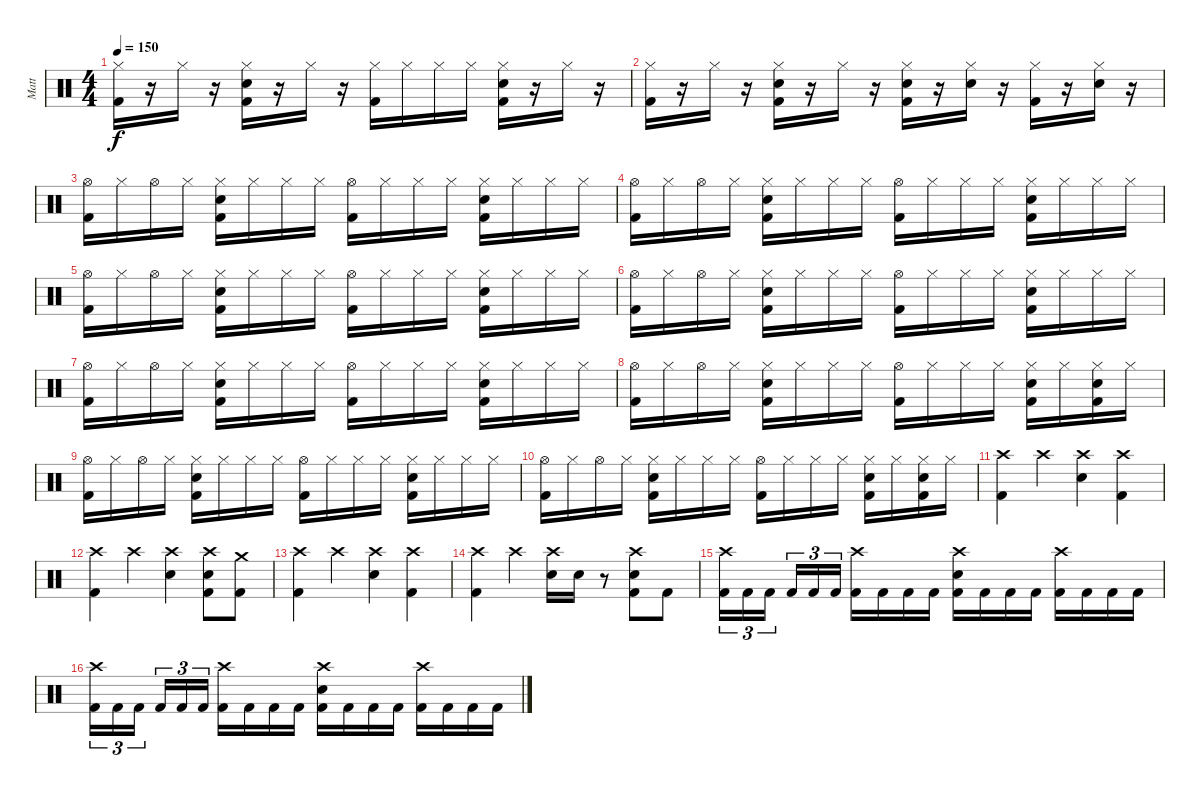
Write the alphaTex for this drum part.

\track ("Matt" "Matt") {instrument percussion}
\staff {score}
\articulation defaults
\ts (4 4)
\tempo 150
\clef neutral
\ks c
("Hi-Hat (closed)" "Kick (hit) 2").16{dy f} r.16 "Hi-Hat (closed)".16 r.16 ("Hi-Hat (closed)" "Snare (hit) 2" "Kick (hit) 2").16 r.16 "Hi-Hat (closed)".16 r.16 ("Hi-Hat (closed)" "Kick (hit) 2").16 "Hi-Hat (closed)".16 "Hi-Hat (closed)".16 "Hi-Hat (closed)".16 ("Hi-Hat (closed)" "Snare (hit) 2" "Kick (hit) 2").16 r.16 "Hi-Hat (closed)".16 r.16 |
("Hi-Hat (closed)" "Kick (hit) 2").16 r.16 "Hi-Hat (closed)".16 r.16 ("Hi-Hat (closed)" "Snare (hit) 2" "Kick (hit) 2").16 r.16 "Hi-Hat (closed)".16 r.16 ("Hi-Hat (closed)" "Snare (hit) 2" "Kick (hit) 2").16 r.16 ("Hi-Hat (closed)" "Snare (hit) 2").16 r.16 ("Hi-Hat (closed)" "Kick (hit) 2").16 r.16 ("Hi-Hat (closed)" "Snare (hit) 2").16 r.16 |
("Hi-Hat (open)" "Kick (hit) 2").16{volume 16} "Hi-Hat (closed)".16 "Hi-Hat (open)".16 "Hi-Hat (closed)".16 ("Hi-Hat (closed)" "Snare (hit) 2" "Kick (hit) 2").16 "Hi-Hat (closed)".16 "Hi-Hat (closed)".16 "Hi-Hat (closed)".16 ("Hi-Hat (open)" "Kick (hit) 2").16 "Hi-Hat (closed)".16 "Hi-Hat (closed)".16 "Hi-Hat (closed)".16 ("Hi-Hat (closed)" "Snare (hit) 2" "Kick (hit) 2").16 "Hi-Hat (closed)".16 "Hi-Hat (closed)".16 "Hi-Hat (closed)".16 |
("Hi-Hat (open)" "Kick (hit) 2").16{volume 16} "Hi-Hat (closed)".16 "Hi-Hat (open)".16 "Hi-Hat (closed)".16 ("Hi-Hat (closed)" "Snare (hit) 2" "Kick (hit) 2").16 "Hi-Hat (closed)".16 "Hi-Hat (closed)".16 "Hi-Hat (closed)".16 ("Hi-Hat (open)" "Kick (hit) 2").16 "Hi-Hat (closed)".16 "Hi-Hat (closed)".16 "Hi-Hat (closed)".16 ("Hi-Hat (closed)" "Snare (hit) 2" "Kick (hit) 2").16 "Hi-Hat (closed)".16 "Hi-Hat (closed)".16 "Hi-Hat (closed)".16 |
("Hi-Hat (open)" "Kick (hit) 2").16{volume 16} "Hi-Hat (closed)".16 "Hi-Hat (open)".16 "Hi-Hat (closed)".16 ("Hi-Hat (closed)" "Snare (hit) 2" "Kick (hit) 2").16 "Hi-Hat (closed)".16 "Hi-Hat (closed)".16 "Hi-Hat (closed)".16 ("Hi-Hat (open)" "Kick (hit) 2").16 "Hi-Hat (closed)".16 "Hi-Hat (closed)".16 "Hi-Hat (closed)".16 ("Hi-Hat (closed)" "Snare (hit) 2" "Kick (hit) 2").16 "Hi-Hat (closed)".16 "Hi-Hat (closed)".16 "Hi-Hat (closed)".16 |
("Hi-Hat (open)" "Kick (hit) 2").16{volume 16} "Hi-Hat (closed)".16 "Hi-Hat (open)".16 "Hi-Hat (closed)".16 ("Hi-Hat (closed)" "Snare (hit) 2" "Kick (hit) 2").16 "Hi-Hat (closed)".16 "Hi-Hat (closed)".16 "Hi-Hat (closed)".16 ("Hi-Hat (open)" "Kick (hit) 2").16 "Hi-Hat (closed)".16 "Hi-Hat (closed)".16 "Hi-Hat (closed)".16 ("Hi-Hat (closed)" "Snare (hit) 2" "Kick (hit) 2").16 "Hi-Hat (closed)".16 "Hi-Hat (closed)".16 "Hi-Hat (closed)".16 |
("Hi-Hat (open)" "Kick (hit) 2").16{volume 16} "Hi-Hat (closed)".16 "Hi-Hat (open)".16 "Hi-Hat (closed)".16 ("Hi-Hat (closed)" "Snare (hit) 2" "Kick (hit) 2").16 "Hi-Hat (closed)".16 "Hi-Hat (closed)".16 "Hi-Hat (closed)".16 ("Hi-Hat (open)" "Kick (hit) 2").16 "Hi-Hat (closed)".16 "Hi-Hat (closed)".16 "Hi-Hat (closed)".16 ("Hi-Hat (closed)" "Snare (hit) 2" "Kick (hit) 2").16 "Hi-Hat (closed)".16 "Hi-Hat (closed)".16 "Hi-Hat (closed)".16 |
("Hi-Hat (open)" "Kick (hit) 2").16{volume 16} "Hi-Hat (closed)".16 "Hi-Hat (open)".16 "Hi-Hat (closed)".16 ("Hi-Hat (closed)" "Snare (hit) 2" "Kick (hit) 2").16 "Hi-Hat (closed)".16 "Hi-Hat (closed)".16 "Hi-Hat (closed)".16 ("Hi-Hat (open)" "Kick (hit) 2").16 "Hi-Hat (closed)".16 "Hi-Hat (closed)".16 "Hi-Hat (closed)".16 ("Hi-Hat (closed)" "Snare (hit) 2" "Kick (hit) 2").16 "Hi-Hat (closed)".16 ("Hi-Hat (closed)" "Snare (hit) 2" "Kick (hit) 2").16 "Hi-Hat (closed)".16 |
("Hi-Hat (open)" "Kick (hit) 2").16{volume 16} "Hi-Hat (closed)".16 "Hi-Hat (open)".16 "Hi-Hat (closed)".16 ("Hi-Hat (closed)" "Snare (hit) 2" "Kick (hit) 2").16 "Hi-Hat (closed)".16 "Hi-Hat (closed)".16 "Hi-Hat (closed)".16 ("Hi-Hat (open)" "Kick (hit) 2").16 "Hi-Hat (closed)".16 "Hi-Hat (closed)".16 "Hi-Hat (closed)".16 ("Hi-Hat (closed)" "Snare (hit) 2" "Kick (hit) 2").16 "Hi-Hat (closed)".16 "Hi-Hat (closed)".16 "Hi-Hat (closed)".16 |
("Hi-Hat (open)" "Kick (hit) 2").16{volume 16} "Hi-Hat (closed)".16 "Hi-Hat (open)".16 "Hi-Hat (closed)".16 ("Hi-Hat (closed)" "Snare (hit) 2" "Kick (hit) 2").16 "Hi-Hat (closed)".16 "Hi-Hat (closed)".16 "Hi-Hat (closed)".16 ("Hi-Hat (open)" "Kick (hit) 2").16 "Hi-Hat (closed)".16 "Hi-Hat (closed)".16 "Hi-Hat (closed)".16 ("Hi-Hat (closed)" "Snare (hit) 2" "Kick (hit) 2").16 "Hi-Hat (closed)".16 ("Hi-Hat (closed)" "Snare (hit) 2" "Kick (hit) 2").16 "Hi-Hat (closed)".16 |
("Crash high (hit)" "Kick (hit) 2").4 "Crash high (hit)".4 ("Crash high (hit)" "Snare (hit) 2").4 ("Crash high (hit)" "Kick (hit) 2").4 |
("Crash high (hit)" "Kick (hit) 2").4 "Crash high (hit)".4 ("Crash high (hit)" "Snare (hit) 2").4 ("Crash high (hit)" "Snare (hit) 2" "Kick (hit) 2").8 ("Crash medium (hit)" "Kick (hit) 2").8 |
("Crash high (hit)" "Kick (hit) 2").4 "Crash high (hit)".4 ("Crash high (hit)" "Snare (hit) 2").4 ("Crash high (hit)" "Kick (hit) 2").4 |
("Crash high (hit)" "Kick (hit) 2").4 "Crash high (hit)".4 ("Crash high (hit)" "Snare (hit) 2").16 "Snare (hit) 2".16 r.8 ("Crash high (hit)" "Snare (hit) 2" "Kick (hit) 2").8 "Kick (hit) 2".8 |
("Crash high (hit)" "Kick (hit) 2").16{tu (3 2)} "Kick (hit) 2".16{tu (3 2)} "Kick (hit) 2".16{tu (3 2)} "Kick (hit) 2".16{tu (3 2)} "Kick (hit) 2".16{tu (3 2)} "Kick (hit) 2".16{tu (3 2)} ("Crash high (hit)" "Kick (hit) 2").16 "Kick (hit) 2".16 "Kick (hit) 2".16 "Kick (hit) 2".16 ("Crash high (hit)" "Snare (hit) 2" "Kick (hit) 2").16 "Kick (hit) 2".16 "Kick (hit) 2".16 "Kick (hit) 2".16 ("Crash high (hit)" "Kick (hit) 2").16 "Kick (hit) 2".16 "Kick (hit) 2".16 "Kick (hit) 2".16 |
("Crash high (hit)" "Kick (hit) 2").16{tu (3 2)} "Kick (hit) 2".16{tu (3 2)} "Kick (hit) 2".16{tu (3 2)} "Kick (hit) 2".16{tu (3 2)} "Kick (hit) 2".16{tu (3 2)} "Kick (hit) 2".16{tu (3 2)} ("Crash high (hit)" "Kick (hit) 2").16 "Kick (hit) 2".16 "Kick (hit) 2".16 "Kick (hit) 2".16 ("Crash high (hit)" "Snare (hit) 2" "Kick (hit) 2").16 "Kick (hit) 2".16 "Kick (hit) 2".16 "Kick (hit) 2".16 ("Crash high (hit)" "Kick (hit) 2").16 "Kick (hit) 2".16 "Kick (hit) 2".16 "Kick (hit) 2".16
